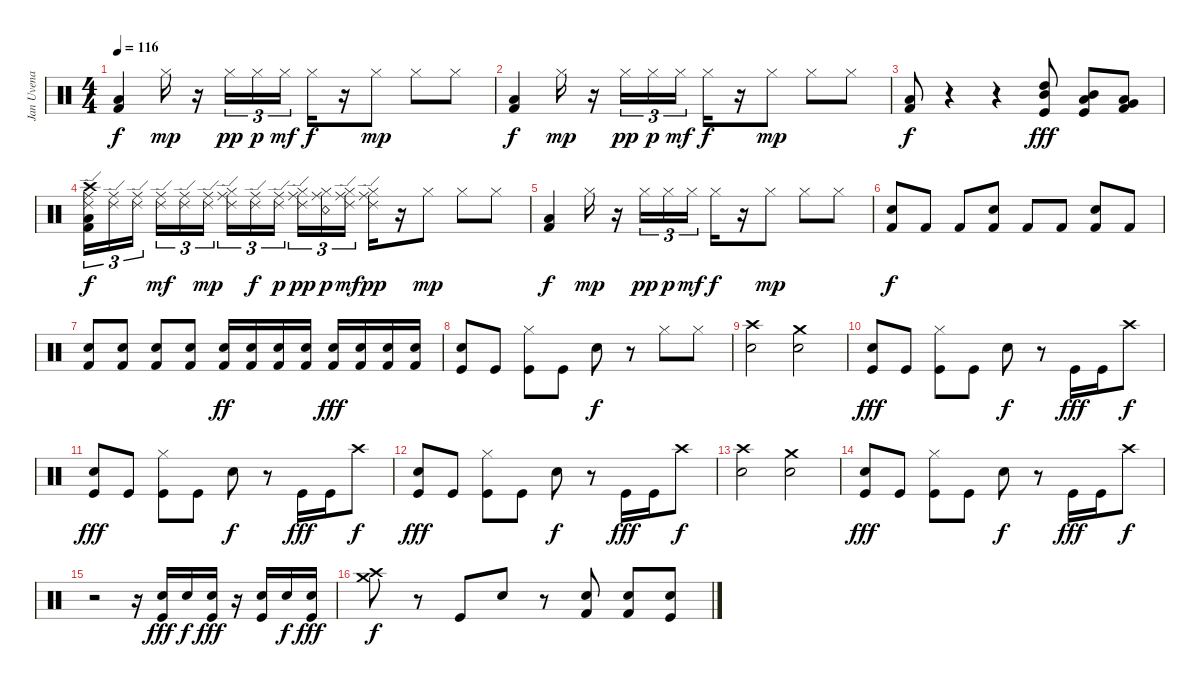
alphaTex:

\track ("Jan Uvena" "Jan Uvena") {instrument percussion}
\staff {score}
\articulation defaults
\ts (4 4)
\tempo 116
\clef neutral
\ks c
("Kick (hit) 2" "Low Floor Tom (hit)").4{dy f} "Hi-Hat (closed)".16{dy mp} r.16 "Hi-Hat (closed)".16{tu (3 2) dy pp} "Hi-Hat (closed)".16{tu (3 2) dy p} "Hi-Hat (closed)".16{tu (3 2) dy mf} "Hi-Hat (closed)".16{dy f} r.16 "Hi-Hat (closed)".8{dy mp} "Hi-Hat (closed)".8 "Hi-Hat (closed)".8 |
("Kick (hit) 2" "Low Floor Tom (hit)").4{dy f} "Hi-Hat (closed)".16{dy mp} r.16 "Hi-Hat (closed)".16{tu (3 2) dy pp} "Hi-Hat (closed)".16{tu (3 2) dy p} "Hi-Hat (closed)".16{tu (3 2) dy mf} "Hi-Hat (closed)".16{dy f} r.16 "Hi-Hat (closed)".8{dy mp} "Hi-Hat (closed)".8 "Hi-Hat (closed)".8 |
("Kick (hit) 2" "Low Floor Tom (hit)").8{dy f} r.4 r.4 ("High Tom (hit)" "Mid Tom (hit)" "Kick (hit)").8{dy fff} ("Mid Tom (hit)" "Low Tom (hit)" "Kick (hit)").8 ("Low Tom (hit)" "Very Low Tom (hit)" "Kick (hit) 2").8 |
("Crash high (hit)" "Ride (middle)" "Ride (edge) 2" "Kick (hit) 2" "Low Floor Tom (hit)").16{tu (3 2) dy f} ("Ride (middle)" "Ride (edge) 2").16{tu (3 2)} ("Ride (middle)" "Ride (edge) 2").16{tu (3 2)} ("Ride (middle)" "Ride (edge) 2").16{tu (3 2) dy mf} ("Ride (middle)" "Ride (edge) 2").16{tu (3 2)} ("Ride (middle)" "Ride (edge) 2").16{tu (3 2) dy mp} ("Ride (middle)" "Ride (edge) 2" "Hi-Hat (closed)").16{tu (3 2)} ("Ride (middle)" "Ride (edge) 2").16{tu (3 2) dy f} ("Ride (middle)" "Ride (edge) 2").16{tu (3 2) dy p} ("Ride (middle)" "Ride (edge) 2" "Hi-Hat (closed)").16{tu (3 2) dy pp} ("Ride (middle)" "Snare (rim shot)" "Hi-Hat (closed)").16{tu (3 2) dy p} ("Ride (middle)" "Ride (edge) 2" "Hi-Hat (closed)").16{tu (3 2) dy mf} ("Ride (middle)" "Ride (edge) 2" "Hi-Hat (closed)").16{dy pp} r.16 "Hi-Hat (closed)".8{dy mp} "Hi-Hat (closed)".8 "Hi-Hat (closed)".8 |
("Kick (hit) 2" "Low Floor Tom (hit)").4{dy f} "Hi-Hat (closed)".16{dy mp} r.16 "Hi-Hat (closed)".16{tu (3 2) dy pp} "Hi-Hat (closed)".16{tu (3 2) dy p} "Hi-Hat (closed)".16{tu (3 2) dy mf} "Hi-Hat (closed)".16{dy f} r.16 "Hi-Hat (closed)".8{dy mp} "Hi-Hat (closed)".8 "Hi-Hat (closed)".8 |
("Snare (hit) 2" "Kick (hit) 2").8{dy f volume 14} "Kick (hit) 2".8 "Kick (hit) 2".8 ("Snare (hit) 2" "Kick (hit) 2").8 "Kick (hit) 2".8 "Kick (hit) 2".8 ("Snare (hit) 2" "Kick (hit) 2").8 "Kick (hit) 2".8 |
("Snare (hit) 2" "Kick (hit) 2").8 ("Snare (hit) 2" "Kick (hit) 2").8 ("Snare (hit) 2" "Kick (hit) 2").8 ("Snare (hit) 2" "Kick (hit) 2").8 ("Snare (hit) 2" "Kick (hit) 2").16{dy ff} ("Snare (hit) 2" "Kick (hit) 2").16 ("Snare (hit) 2" "Kick (hit) 2").16 ("Snare (hit) 2" "Kick (hit) 2").16 ("Snare (hit) 2" "Kick (hit) 2").16{dy fff} ("Snare (hit) 2" "Kick (hit) 2").16 ("Snare (hit) 2" "Kick (hit) 2").16 ("Snare (hit) 2" "Kick (hit) 2").16 |
("Snare (hit) 2" "Kick (hit)").8 "Kick (hit)".8 ("Hi-Hat (closed)" "Kick (hit)").8 "Kick (hit)".8 "Snare (hit) 2".8{dy f} r.8 "Hi-Hat (closed)".8 "Hi-Hat (closed)".8 |
("Snare (hit) 2" "Crash high (hit)").2 ("Snare (hit) 2" "Crash medium (hit)").2 |
("Snare (hit) 2" "Kick (hit)").8{dy fff} "Kick (hit)".8 ("Hi-Hat (closed)" "Kick (hit)").8 "Kick (hit)".8 "Snare (hit) 2".8{dy f} r.8 "Kick (hit)".16{dy fff} "Kick (hit)".16 "Crash high (hit)".8{dy f} |
("Snare (hit) 2" "Kick (hit)").8{dy fff} "Kick (hit)".8 ("Hi-Hat (closed)" "Kick (hit)").8 "Kick (hit)".8 "Snare (hit) 2".8{dy f} r.8 "Kick (hit)".16{dy fff} "Kick (hit)".16 "Crash high (hit)".8{dy f} |
("Snare (hit) 2" "Kick (hit)").8{dy fff} "Kick (hit)".8 ("Hi-Hat (closed)" "Kick (hit)").8 "Kick (hit)".8 "Snare (hit) 2".8{dy f} r.8 "Kick (hit)".16{dy fff} "Kick (hit)".16 "Crash high (hit)".8{dy f} |
("Snare (hit) 2" "Crash high (hit)").2 ("Snare (hit) 2" "Crash medium (hit)").2 |
("Snare (hit) 2" "Kick (hit)").8{dy fff} "Kick (hit)".8 ("Hi-Hat (closed)" "Kick (hit)").8 "Kick (hit)".8 "Snare (hit) 2".8{dy f} r.8 "Kick (hit)".16{dy fff} "Kick (hit)".16 "Crash high (hit)".8{dy f} |
r.2 r.16 ("Snare (hit) 2" "Kick (hit)").16{dy fff} "Snare (hit) 2".16{dy f} ("Snare (hit) 2" "Kick (hit)").16{dy fff} r.16 ("Snare (hit) 2" "Kick (hit)").16 "Snare (hit) 2".16{dy f} ("Snare (hit) 2" "Kick (hit)").16{dy fff} |
("Crash medium (hit)" "Crash high (hit)").8{dy f} r.8 "Kick (hit)".8 "Snare (hit) 2".8 r.8 ("Snare (hit) 2" "Kick (hit) 2").8 ("Snare (hit) 2" "Kick (hit) 2").8 ("Snare (hit) 2" "Kick (hit)").8
